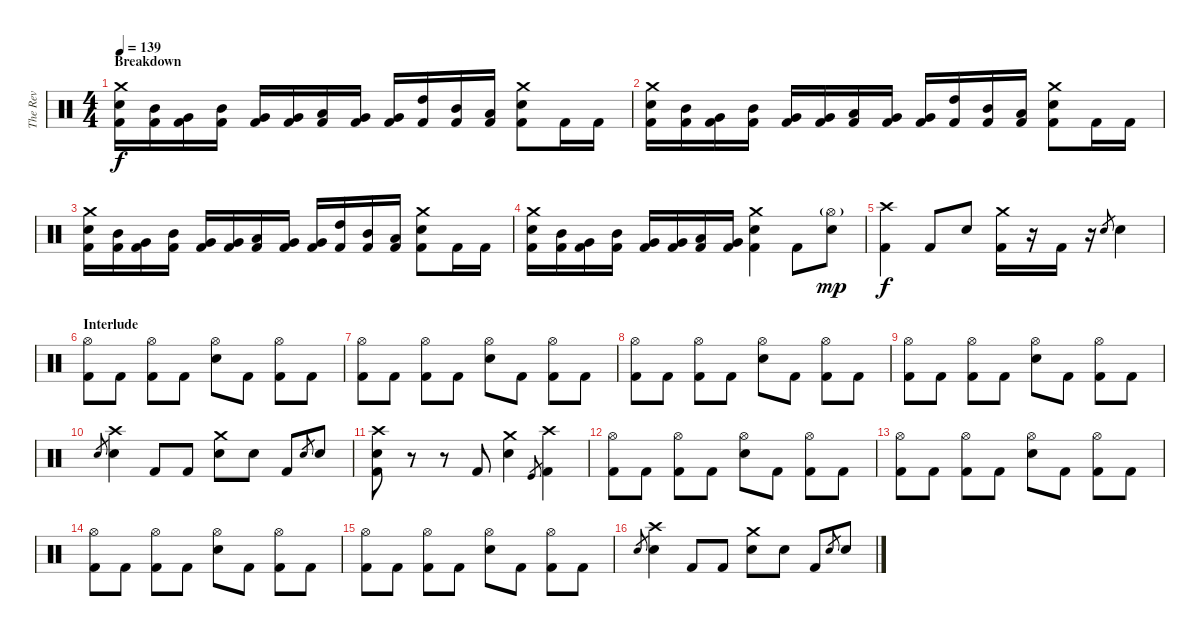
\track ("The Rev" "The Rev") {instrument percussion}
\staff {score}
\articulation defaults
\ts (4 4)
\section ("" "Breakdown")
\tempo 139
\clef neutral
\ks c
("Crash medium (hit)" "Electric Snare (hit)" "Kick (hit) 2").16{dy f} ("Mid Tom (hit)" "Kick (hit) 2").16 ("Very Low Tom (hit)" "Kick (hit) 2").16 ("Mid Tom (hit)" "Kick (hit) 2").16 ("Very Low Tom (hit)" "Kick (hit) 2").16 ("Very Low Tom (hit)" "Kick (hit) 2").16 ("Low Tom (hit)" "Kick (hit) 2").16 ("Very Low Tom (hit)" "Kick (hit) 2").16 ("Very Low Tom (hit)" "Kick (hit) 2").16 ("High Tom (hit)" "Kick (hit) 2").16 ("Mid Tom (hit)" "Kick (hit) 2").16 ("Low Tom (hit)" "Kick (hit) 2").16 ("Crash medium (hit)" "Electric Snare (hit)" "Kick (hit) 2").8 "Kick (hit) 2".16 "Kick (hit) 2".16 |
("Crash medium (hit)" "Electric Snare (hit)" "Kick (hit) 2").16 ("Mid Tom (hit)" "Kick (hit) 2").16 ("Very Low Tom (hit)" "Kick (hit) 2").16 ("Mid Tom (hit)" "Kick (hit) 2").16 ("Very Low Tom (hit)" "Kick (hit) 2").16 ("Very Low Tom (hit)" "Kick (hit) 2").16 ("Low Tom (hit)" "Kick (hit) 2").16 ("Very Low Tom (hit)" "Kick (hit) 2").16 ("Very Low Tom (hit)" "Kick (hit) 2").16 ("High Tom (hit)" "Kick (hit) 2").16 ("Mid Tom (hit)" "Kick (hit) 2").16 ("Low Tom (hit)" "Kick (hit) 2").16 ("Crash medium (hit)" "Electric Snare (hit)" "Kick (hit) 2").8 "Kick (hit) 2".16 "Kick (hit) 2".16 |
("Crash medium (hit)" "Electric Snare (hit)" "Kick (hit) 2").16 ("Mid Tom (hit)" "Kick (hit) 2").16 ("Very Low Tom (hit)" "Kick (hit) 2").16 ("Mid Tom (hit)" "Kick (hit) 2").16 ("Very Low Tom (hit)" "Kick (hit) 2").16 ("Very Low Tom (hit)" "Kick (hit) 2").16 ("Low Tom (hit)" "Kick (hit) 2").16 ("Very Low Tom (hit)" "Kick (hit) 2").16 ("Very Low Tom (hit)" "Kick (hit) 2").16 ("High Tom (hit)" "Kick (hit) 2").16 ("Mid Tom (hit)" "Kick (hit) 2").16 ("Low Tom (hit)" "Kick (hit) 2").16 ("Crash medium (hit)" "Electric Snare (hit)" "Kick (hit) 2").8 "Kick (hit) 2".16 "Kick (hit) 2".16 |
("Crash medium (hit)" "Electric Snare (hit)" "Kick (hit) 2").16 ("Mid Tom (hit)" "Kick (hit) 2").16 ("Very Low Tom (hit)" "Kick (hit) 2").16 ("Mid Tom (hit)" "Kick (hit) 2").16 ("Very Low Tom (hit)" "Kick (hit) 2").16 ("Very Low Tom (hit)" "Kick (hit) 2").16 ("Low Tom (hit)" "Kick (hit) 2").16 ("Very Low Tom (hit)" "Kick (hit) 2").16 ("Crash medium (hit)" "Electric Snare (hit)" "Kick (hit) 2").4 "Kick (hit) 2".8 ("Hi-Hat (open)"{g} "Electric Snare (hit)").8{dy mp} |
("Crash high (hit)" "Kick (hit) 2").4{dy f} "Kick (hit) 2".8 "Electric Snare (hit)".8 ("Crash medium (hit)" "Kick (hit) 2").16 r.16 "Kick (hit) 2".16 r.16 "Electric Snare (hit)".8{gr} "Electric Snare (hit)".4 |
\section ("" "Interlude")
("Hi-Hat (open)" "Kick (hit) 2").8 "Kick (hit) 2".8 ("Hi-Hat (open)" "Kick (hit) 2").8 "Kick (hit) 2".8 ("Hi-Hat (open)" "Electric Snare (hit)").8 "Kick (hit) 2".8 ("Hi-Hat (open)" "Kick (hit) 2").8 "Kick (hit) 2".8 |
("Hi-Hat (open)" "Kick (hit) 2").8 "Kick (hit) 2".8 ("Hi-Hat (open)" "Kick (hit) 2").8 "Kick (hit) 2".8 ("Hi-Hat (open)" "Electric Snare (hit)").8 "Kick (hit) 2".8 ("Hi-Hat (open)" "Kick (hit) 2").8 "Kick (hit) 2".8 |
("Hi-Hat (open)" "Kick (hit) 2").8 "Kick (hit) 2".8 ("Hi-Hat (open)" "Kick (hit) 2").8 "Kick (hit) 2".8 ("Hi-Hat (open)" "Electric Snare (hit)").8 "Kick (hit) 2".8 ("Hi-Hat (open)" "Kick (hit) 2").8 "Kick (hit) 2".8 |
("Hi-Hat (open)" "Kick (hit) 2").8 "Kick (hit) 2".8 ("Hi-Hat (open)" "Kick (hit) 2").8 "Kick (hit) 2".8 ("Hi-Hat (open)" "Electric Snare (hit)").8 "Kick (hit) 2".8 ("Hi-Hat (open)" "Kick (hit) 2").8 "Kick (hit) 2".8 |
"Electric Snare (hit)".8{gr} ("Crash high (hit)" "Electric Snare (hit)").4 "Kick (hit) 2".8 "Kick (hit) 2".8 ("Crash medium (hit)" "Electric Snare (hit)").8 "Electric Snare (hit)".8 "Kick (hit) 2".8 "Electric Snare (hit)".8{gr} "Electric Snare (hit)".8 |
("Crash high (hit)" "Electric Snare (hit)" "Kick (hit) 2").8 r.8 r.8 "Kick (hit) 2".8 ("Crash medium (hit)" "Electric Snare (hit)").4 "Kick (hit)".8{gr} ("Crash high (hit)" "Kick (hit) 2").4 |
("Hi-Hat (open)" "Kick (hit) 2").8 "Kick (hit) 2".8 ("Hi-Hat (open)" "Kick (hit) 2").8 "Kick (hit) 2".8 ("Hi-Hat (open)" "Electric Snare (hit)").8 "Kick (hit) 2".8 ("Hi-Hat (open)" "Kick (hit) 2").8 "Kick (hit) 2".8 |
("Hi-Hat (open)" "Kick (hit) 2").8 "Kick (hit) 2".8 ("Hi-Hat (open)" "Kick (hit) 2").8 "Kick (hit) 2".8 ("Hi-Hat (open)" "Electric Snare (hit)").8 "Kick (hit) 2".8 ("Hi-Hat (open)" "Kick (hit) 2").8 "Kick (hit) 2".8 |
("Hi-Hat (open)" "Kick (hit) 2").8 "Kick (hit) 2".8 ("Hi-Hat (open)" "Kick (hit) 2").8 "Kick (hit) 2".8 ("Hi-Hat (open)" "Electric Snare (hit)").8 "Kick (hit) 2".8 ("Hi-Hat (open)" "Kick (hit) 2").8 "Kick (hit) 2".8 |
("Hi-Hat (open)" "Kick (hit) 2").8 "Kick (hit) 2".8 ("Hi-Hat (open)" "Kick (hit) 2").8 "Kick (hit) 2".8 ("Hi-Hat (open)" "Electric Snare (hit)").8 "Kick (hit) 2".8 ("Hi-Hat (open)" "Kick (hit) 2").8 "Kick (hit) 2".8 |
"Electric Snare (hit)".8{gr} ("Crash high (hit)" "Electric Snare (hit)").4 "Kick (hit) 2".8 "Kick (hit) 2".8 ("Crash medium (hit)" "Electric Snare (hit)").8 "Electric Snare (hit)".8 "Kick (hit) 2".8 "Electric Snare (hit)".8{gr} "Electric Snare (hit)".8
